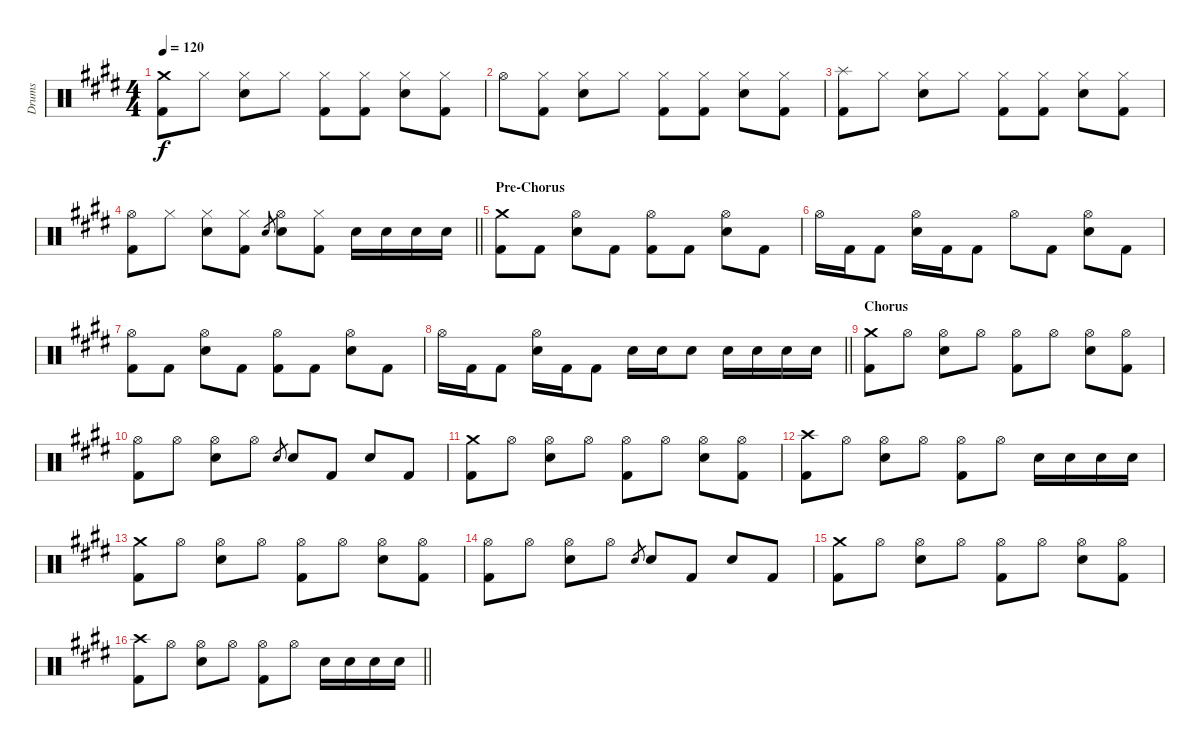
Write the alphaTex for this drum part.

\track ("Drums" "Drums") {instrument percussion}
\staff {score}
\articulation defaults
\ts (4 4)
\tempo 120
\clef neutral
\ks e
("Crash medium (hit)" "Kick (hit) 2").8{dy f} "Hi-Hat (closed)".8 ("Hi-Hat (closed)" "Electric Snare (hit)").8 "Hi-Hat (closed)".8 ("Hi-Hat (closed)" "Kick (hit) 2").8 ("Hi-Hat (closed)" "Kick (hit) 2").8 ("Hi-Hat (closed)" "Electric Snare (hit)").8 ("Hi-Hat (closed)" "Kick (hit) 2").8 |
"Hi-Hat (open)".8 ("Hi-Hat (closed)" "Kick (hit) 2").8 ("Hi-Hat (closed)" "Electric Snare (hit)").8 "Hi-Hat (closed)".8 ("Hi-Hat (closed)" "Kick (hit) 2").8 ("Hi-Hat (closed)" "Kick (hit) 2").8 ("Hi-Hat (closed)" "Electric Snare (hit)").8 ("Hi-Hat (closed)" "Kick (hit) 2").8 |
("Splash (hit)" "Kick (hit) 2").8 "Hi-Hat (closed)".8 ("Hi-Hat (closed)" "Electric Snare (hit)").8 "Hi-Hat (closed)".8 ("Hi-Hat (closed)" "Kick (hit) 2").8 ("Hi-Hat (closed)" "Kick (hit) 2").8 ("Hi-Hat (closed)" "Electric Snare (hit)").8 ("Hi-Hat (closed)" "Kick (hit) 2").8 |
\barLineRight lightlight
("Hi-Hat (open)" "Kick (hit) 2").8 "Hi-Hat (closed)".8 ("Hi-Hat (closed)" "Electric Snare (hit)").8 ("Hi-Hat (closed)" "Kick (hit) 2").8 "Electric Snare (hit)".8{gr} ("Hi-Hat (open)" "Electric Snare (hit)").8 ("Hi-Hat (closed)" "Kick (hit) 2").8 "Electric Snare (hit)".16 "Electric Snare (hit)".16 "Electric Snare (hit)".16 "Electric Snare (hit)".16 |
\section ("" "Pre-Chorus")
("Crash medium (hit)" "Kick (hit) 2").8 "Kick (hit) 2".8 ("Hi-Hat (open)" "Electric Snare (hit)").8 "Kick (hit) 2".8 ("Hi-Hat (open)" "Kick (hit) 2").8 "Kick (hit) 2".8 ("Hi-Hat (open)" "Electric Snare (hit)").8 "Kick (hit) 2".8 |
"Hi-Hat (open)".16 "Kick (hit) 2".16 "Kick (hit) 2".8 ("Hi-Hat (open)" "Electric Snare (hit)").16 "Kick (hit) 2".16 "Kick (hit) 2".8 "Hi-Hat (open)".8 "Kick (hit) 2".8 ("Hi-Hat (open)" "Electric Snare (hit)").8 "Kick (hit) 2".8 |
("Hi-Hat (open)" "Kick (hit) 2").8 "Kick (hit) 2".8 ("Hi-Hat (open)" "Electric Snare (hit)").8 "Kick (hit) 2".8 ("Hi-Hat (open)" "Kick (hit) 2").8 "Kick (hit) 2".8 ("Hi-Hat (open)" "Electric Snare (hit)").8 "Kick (hit) 2".8 |
\barLineRight lightlight "Hi-Hat (open)".16 "Kick (hit) 2".16 "Kick (hit) 2".8
("Hi-Hat (open)" "Electric Snare (hit)").16 "Kick (hit) 2".16 "Kick (hit) 2".8 "Electric Snare (hit)".16 "Electric Snare (hit)".16 "Electric Snare (hit)".8 "Electric Snare (hit)".16 "Electric Snare (hit)".16 "Electric Snare (hit)".16 "Electric Snare (hit)".16 |
\section ("" "Chorus")
("Crash medium (hit)" "Kick (hit) 2").8 "Hi-Hat (open)".8 ("Hi-Hat (open)" "Electric Snare (hit)").8 "Hi-Hat (open)".8 ("Hi-Hat (open)" "Kick (hit) 2").8 "Hi-Hat (open)".8 ("Hi-Hat (open)" "Electric Snare (hit)").8 ("Hi-Hat (open)" "Kick (hit) 2").8 |
("Hi-Hat (open)" "Kick (hit) 2").8 "Hi-Hat (open)".8 ("Hi-Hat (open)" "Electric Snare (hit)").8 "Hi-Hat (open)".8 "Electric Snare (hit)".8{gr} "Electric Snare (hit)".8 "Kick (hit) 2".8 "Electric Snare (hit)".8 "Kick (hit) 2".8 |
("Crash medium (hit)" "Kick (hit) 2").8 "Hi-Hat (open)".8 ("Hi-Hat (open)" "Electric Snare (hit)").8 "Hi-Hat (open)".8 ("Hi-Hat (open)" "Kick (hit) 2").8 "Hi-Hat (open)".8 ("Hi-Hat (open)" "Electric Snare (hit)").8 ("Hi-Hat (open)" "Kick (hit) 2").8 |
("Crash high (hit)" "Kick (hit) 2").8 "Hi-Hat (open)".8 ("Hi-Hat (open)" "Electric Snare (hit)").8 "Hi-Hat (open)".8 ("Hi-Hat (open)" "Kick (hit) 2").8 "Hi-Hat (open)".8 "Electric Snare (hit)".16 "Electric Snare (hit)".16 "Electric Snare (hit)".16 "Electric Snare (hit)".16 |
("Crash medium (hit)" "Kick (hit) 2").8 "Hi-Hat (open)".8 ("Hi-Hat (open)" "Electric Snare (hit)").8 "Hi-Hat (open)".8 ("Hi-Hat (open)" "Kick (hit) 2").8 "Hi-Hat (open)".8 ("Hi-Hat (open)" "Electric Snare (hit)").8 ("Hi-Hat (open)" "Kick (hit) 2").8 |
("Hi-Hat (open)" "Kick (hit) 2").8 "Hi-Hat (open)".8 ("Hi-Hat (open)" "Electric Snare (hit)").8 "Hi-Hat (open)".8 "Electric Snare (hit)".8{gr} "Electric Snare (hit)".8 "Kick (hit) 2".8 "Electric Snare (hit)".8 "Kick (hit) 2".8 |
("Crash medium (hit)" "Kick (hit) 2").8 "Hi-Hat (open)".8 ("Hi-Hat (open)" "Electric Snare (hit)").8 "Hi-Hat (open)".8 ("Hi-Hat (open)" "Kick (hit) 2").8 "Hi-Hat (open)".8 ("Hi-Hat (open)" "Electric Snare (hit)").8 ("Hi-Hat (open)" "Kick (hit) 2").8 |
\barLineRight lightlight
("Crash high (hit)" "Kick (hit) 2").8 "Hi-Hat (open)".8 ("Hi-Hat (open)" "Electric Snare (hit)").8 "Hi-Hat (open)".8 ("Hi-Hat (open)" "Kick (hit) 2").8 "Hi-Hat (open)".8 "Electric Snare (hit)".16 "Electric Snare (hit)".16 "Electric Snare (hit)".16 "Electric Snare (hit)".16
